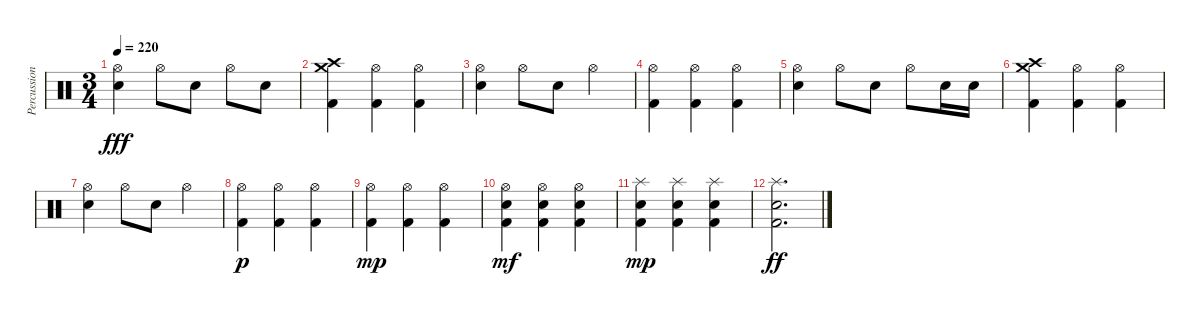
\track ("Percussions" "Percussion") {instrument percussion}
\staff {score}
\articulation defaults
\ts (3 4)
\tempo 220
\clef neutral
\ks c
("Hi-Hat (open)" "Electric Snare (hit)").4{dy fff} "Hi-Hat (open)".8 "Electric Snare (hit)".8 "Hi-Hat (open)".8 "Electric Snare (hit)".8 |
("Crash high (hit)" "Crash medium (hit)" "Kick (hit) 2").4 ("Hi-Hat (open)" "Kick (hit) 2").4 ("Hi-Hat (open)" "Kick (hit) 2").4 |
("Hi-Hat (open)" "Electric Snare (hit)").4 "Hi-Hat (open)".8 "Electric Snare (hit)".8 "Hi-Hat (open)".4 |
("Hi-Hat (open)" "Kick (hit) 2").4 ("Hi-Hat (open)" "Kick (hit) 2").4 ("Hi-Hat (open)" "Kick (hit) 2").4 |
("Hi-Hat (open)" "Electric Snare (hit)").4 "Hi-Hat (open)".8 "Electric Snare (hit)".8 "Hi-Hat (open)".8 "Electric Snare (hit)".16 "Electric Snare (hit)".16 |
("Crash high (hit)" "Crash medium (hit)" "Kick (hit) 2").4 ("Hi-Hat (open)" "Kick (hit) 2").4 ("Hi-Hat (open)" "Kick (hit) 2").4 |
("Hi-Hat (open)" "Electric Snare (hit)").4 "Hi-Hat (open)".8 "Electric Snare (hit)".8 "Hi-Hat (open)".4 |
("Hi-Hat (open)" "Kick (hit) 2").4{dy p} ("Hi-Hat (open)" "Kick (hit) 2").4 ("Hi-Hat (open)" "Kick (hit) 2").4 |
("Hi-Hat (open)" "Kick (hit) 2").4{dy mp} ("Hi-Hat (open)" "Kick (hit) 2").4 ("Hi-Hat (open)" "Kick (hit) 2").4 |
("Hi-Hat (open)" "Electric Snare (hit)" "Kick (hit) 2").4{dy mf} ("Hi-Hat (open)" "Electric Snare (hit)" "Kick (hit) 2").4 ("Hi-Hat (open)" "Electric Snare (hit)" "Kick (hit) 2").4 |
("Splash (hit)" "Electric Snare (hit)" "Kick (hit) 2").4{dy mp} ("Splash (hit)" "Electric Snare (hit)" "Kick (hit) 2").4 ("Splash (hit)" "Electric Snare (hit)" "Kick (hit) 2").4 |
("Splash (hit)" "Electric Snare (hit)" "Kick (hit) 2").2{d dy ff}
